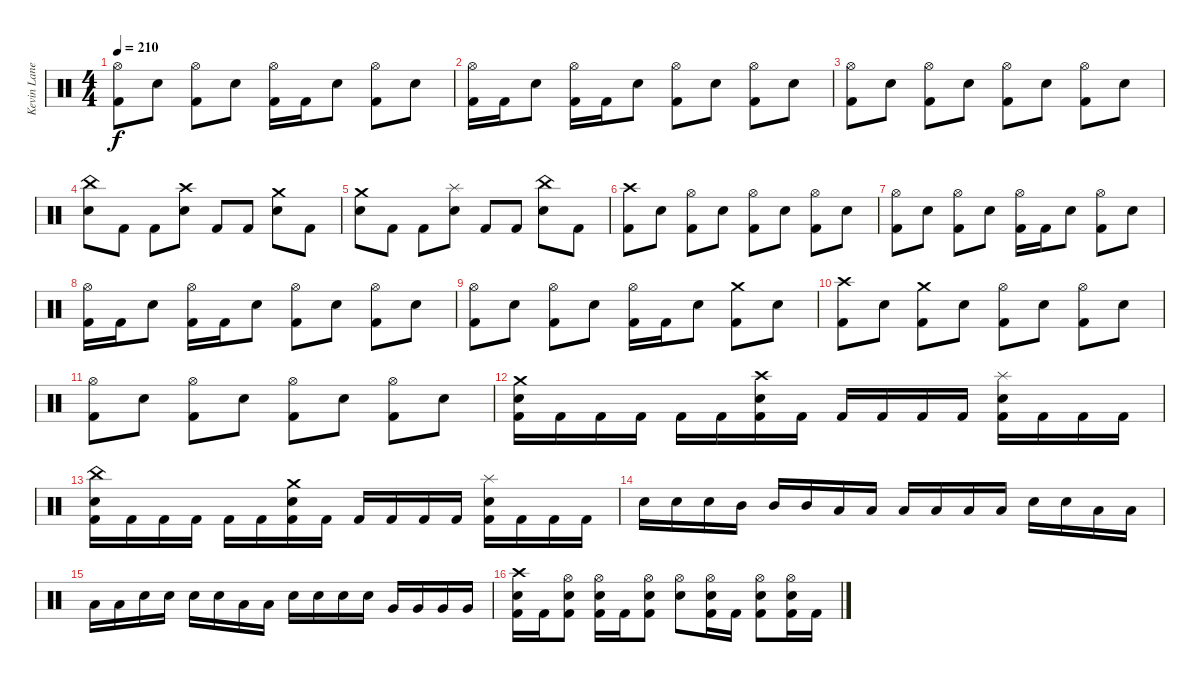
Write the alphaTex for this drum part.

\track ("Kevin Lane (Drums)" "Kevin Lane") {instrument percussion}
\staff {score}
\articulation defaults
\ts (4 4)
\tempo 210
\clef neutral
\ks c
("Hi-Hat (open)" "Kick (hit) 2").8{dy f} "Snare (hit) 2".8 ("Hi-Hat (open)" "Kick (hit) 2").8 "Snare (hit) 2".8 ("Hi-Hat (open)" "Kick (hit) 2").16 "Kick (hit) 2".16 "Snare (hit) 2".8 ("Hi-Hat (open)" "Kick (hit) 2").8 "Snare (hit) 2".8 |
("Hi-Hat (open)" "Kick (hit) 2").16 "Kick (hit) 2".16 "Snare (hit) 2".8 ("Hi-Hat (open)" "Kick (hit) 2").16 "Kick (hit) 2".16 "Snare (hit) 2".8 ("Hi-Hat (open)" "Kick (hit) 2").8 "Snare (hit) 2".8 ("Hi-Hat (open)" "Kick (hit) 2").8 "Snare (hit) 2".8 |
("Hi-Hat (open)" "Kick (hit) 2").8 "Snare (hit) 2".8 ("Hi-Hat (open)" "Kick (hit) 2").8 "Snare (hit) 2".8 ("Hi-Hat (open)" "Kick (hit) 2").8 "Snare (hit) 2".8 ("Hi-Hat (open)" "Kick (hit) 2").8 "Snare (hit) 2".8 |
("China (hit)" "Snare (hit) 2").8 "Kick (hit) 2".8 "Kick (hit) 2".8 ("Crash high (hit)" "Snare (hit) 2").8 "Kick (hit) 2".8 "Kick (hit) 2".8 ("Crash medium (hit)" "Snare (hit) 2").8 "Kick (hit) 2".8 |
("Crash medium (hit)" "Snare (hit) 2").8 "Kick (hit) 2".8 "Kick (hit) 2".8 ("Splash (hit)" "Snare (hit) 2").8 "Kick (hit) 2".8 "Kick (hit) 2".8 ("China (hit)" "Snare (hit) 2").8 "Kick (hit) 2".8 |
("Crash high (hit)" "Kick (hit) 2").8 "Snare (hit) 2".8 ("Hi-Hat (open)" "Kick (hit) 2").8 "Snare (hit) 2".8 ("Hi-Hat (open)" "Kick (hit) 2").8 "Snare (hit) 2".8 ("Hi-Hat (open)" "Kick (hit) 2").8 "Snare (hit) 2".8 |
("Hi-Hat (open)" "Kick (hit) 2").8 "Snare (hit) 2".8 ("Hi-Hat (open)" "Kick (hit) 2").8 "Snare (hit) 2".8 ("Hi-Hat (open)" "Kick (hit) 2").16 "Kick (hit) 2".16 "Snare (hit) 2".8 ("Hi-Hat (open)" "Kick (hit) 2").8 "Snare (hit) 2".8 |
("Hi-Hat (open)" "Kick (hit) 2").16 "Kick (hit) 2".16 "Snare (hit) 2".8 ("Hi-Hat (open)" "Kick (hit) 2").16 "Kick (hit) 2".16 "Snare (hit) 2".8 ("Hi-Hat (open)" "Kick (hit) 2").8 "Snare (hit) 2".8 ("Hi-Hat (open)" "Kick (hit) 2").8 "Snare (hit) 2".8 |
("Hi-Hat (open)" "Kick (hit) 2").8 "Snare (hit) 2".8 ("Hi-Hat (open)" "Kick (hit) 2").8 "Snare (hit) 2".8 ("Hi-Hat (open)" "Kick (hit) 2").16 "Kick (hit) 2".16 "Snare (hit) 2".8 ("Crash medium (hit)" "Kick (hit) 2").8 "Snare (hit) 2".8 |
("Crash high (hit)" "Kick (hit) 2").8 "Snare (hit) 2".8 ("Crash medium (hit)" "Kick (hit) 2").8 "Snare (hit) 2".8 ("Hi-Hat (open)" "Kick (hit) 2").8 "Snare (hit) 2".8 ("Hi-Hat (open)" "Kick (hit) 2").8 "Snare (hit) 2".8 |
("Hi-Hat (open)" "Kick (hit) 2").8 "Snare (hit) 2".8 ("Hi-Hat (open)" "Kick (hit) 2").8 "Snare (hit) 2".8 ("Hi-Hat (open)" "Kick (hit) 2").8 "Snare (hit) 2".8 ("Hi-Hat (open)" "Kick (hit) 2").8 "Snare (hit) 2".8 |
("Crash medium (hit)" "Snare (hit) 2" "Kick (hit) 2").16 "Kick (hit) 2".16 "Kick (hit) 2".16 "Kick (hit) 2".16 "Kick (hit) 2".16 "Kick (hit) 2".16 ("Crash high (hit)" "Snare (hit) 2" "Kick (hit) 2").16 "Kick (hit) 2".16 "Kick (hit) 2".16 "Kick (hit) 2".16 "Kick (hit) 2".16 "Kick (hit) 2".16 ("Splash (hit)" "Snare (hit) 2" "Kick (hit) 2").16 "Kick (hit) 2".16 "Kick (hit) 2".16 "Kick (hit) 2".16 |
("China (hit)" "Snare (hit) 2" "Kick (hit) 2").16 "Kick (hit) 2".16 "Kick (hit) 2".16 "Kick (hit) 2".16 "Kick (hit) 2".16 "Kick (hit) 2".16 ("Crash medium (hit)" "Snare (hit) 2" "Kick (hit) 2").16 "Kick (hit) 2".16 "Kick (hit) 2".16 "Kick (hit) 2".16 "Kick (hit) 2".16 "Kick (hit) 2".16 ("Splash (hit)" "Snare (hit) 2" "Kick (hit) 2").16 "Kick (hit) 2".16 "Kick (hit) 2".16 "Kick (hit) 2".16 |
"Snare (hit) 2".16 "Snare (hit) 2".16 "Snare (hit) 2".16 "Mid Tom (hit)".16 "Mid Tom (hit)".16 "Mid Tom (hit)".16 "Low Tom (hit)".16 "Low Tom (hit)".16 "Low Tom (hit)".16 "Low Tom (hit)".16 "Low Tom (hit)".16 "Low Tom (hit)".16 "Snare (hit) 2".16 "Snare (hit) 2".16 "Low Tom (hit)".16 "Low Tom (hit)".16 |
"Low Tom (hit)".16 "Low Tom (hit)".16 "Snare (hit) 2".16 "Snare (hit) 2".16 "Snare (hit) 2".16 "Snare (hit) 2".16 "Low Tom (hit)".16 "Low Tom (hit)".16 "Snare (hit) 2".16 "Snare (hit) 2".16 "Snare (hit) 2".16 "Snare (hit) 2".16 "Very Low Tom (hit)".16 "Very Low Tom (hit)".16 "Very Low Tom (hit)".16 "Very Low Tom (hit)".16 |
("Crash high (hit)" "Snare (hit) 2" "Kick (hit) 2").16 "Kick (hit) 2".16 ("Hi-Hat (open)" "Snare (hit) 2" "Kick (hit) 2").8 ("Hi-Hat (open)" "Snare (hit) 2" "Kick (hit) 2").16 "Kick (hit) 2".16 ("Hi-Hat (open)" "Snare (hit) 2" "Kick (hit) 2").8 ("Hi-Hat (open)" "Snare (hit) 2").8 ("Hi-Hat (open)" "Snare (hit) 2" "Kick (hit) 2").16 "Kick (hit) 2".16 ("Hi-Hat (open)" "Snare (hit) 2" "Kick (hit) 2").8 ("Hi-Hat (open)" "Snare (hit) 2" "Kick (hit) 2").16 "Kick (hit) 2".16
